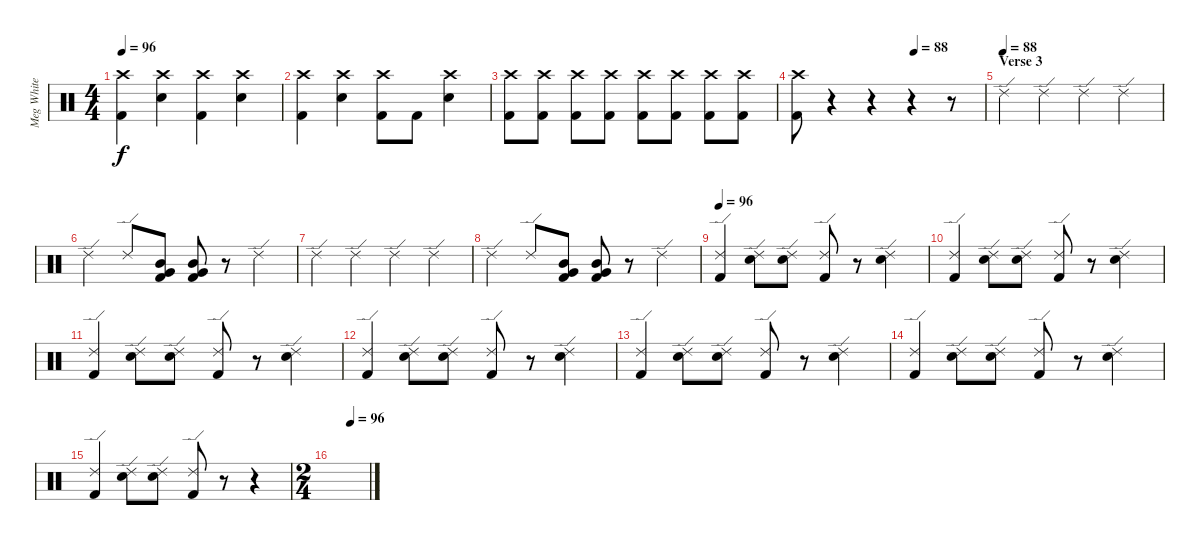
\track ("Meg White - Drums" "Meg White ") {instrument percussion}
\staff {score}
\articulation defaults
\ts (4 4)
\tempo 96
\clef neutral
\ks c
("Crash high (hit)" "Kick (hit) 2").4{dy f} ("Crash high (hit)" "Snare (hit) 2").4 ("Crash high (hit)" "Kick (hit) 2").4 ("Crash high (hit)" "Snare (hit) 2").4 |
("Crash high (hit)" "Kick (hit) 2").4 ("Crash high (hit)" "Snare (hit) 2").4 ("Crash high (hit)" "Kick (hit) 2").8 "Kick (hit) 2".8 ("Crash high (hit)" "Snare (hit) 2").4 |
("Crash high (hit)" "Kick (hit) 2").8 ("Crash high (hit)" "Kick (hit) 2").8 ("Crash high (hit)" "Kick (hit) 2").8 ("Crash high (hit)" "Kick (hit) 2").8 ("Crash high (hit)" "Kick (hit) 2").8 ("Crash high (hit)" "Kick (hit) 2").8 ("Crash high (hit)" "Kick (hit) 2").8 ("Crash high (hit)" "Kick (hit) 2").8 |
\tempo (88 0.625)
("Crash high (hit)" "Kick (hit) 2").8 r.4 r.4 r.4 r.8 |
\section ("" "Verse 3")
\tempo (88)
"Ride (edge) 2".4 "Ride (edge) 2".4 "Ride (edge) 2".4 "Ride (edge) 2".4 |
"Ride (edge) 2".4 "Ride (edge) 2".8 ("Very Low Tom (hit)" "Mid Tom (hit)" "Kick (hit) 2").8 ("Very Low Tom (hit)" "Mid Tom (hit)" "Kick (hit) 2").8 r.8 "Ride (edge) 2".4 |
"Ride (edge) 2".4 "Ride (edge) 2".4 "Ride (edge) 2".4 "Ride (edge) 2".4 |
"Ride (edge) 2".4 "Ride (edge) 2".8 ("Very Low Tom (hit)" "Mid Tom (hit)" "Kick (hit) 2").8 ("Very Low Tom (hit)" "Mid Tom (hit)" "Kick (hit) 2").8 r.8 "Ride (edge) 2".4 |
\tempo 96
("Ride (edge) 2" "Kick (hit) 2").4 ("Ride (edge) 2" "Snare (hit) 2").8 ("Ride (edge) 2" "Snare (hit) 2").8 ("Ride (edge) 2" "Kick (hit) 2").8 r.8 ("Ride (edge) 2" "Snare (hit) 2").4 |
("Ride (edge) 2" "Kick (hit) 2").4 ("Ride (edge) 2" "Snare (hit) 2").8 ("Ride (edge) 2" "Snare (hit) 2").8 ("Ride (edge) 2" "Kick (hit) 2").8 r.8 ("Ride (edge) 2" "Snare (hit) 2").4 |
("Ride (edge) 2" "Kick (hit) 2").4 ("Ride (edge) 2" "Snare (hit) 2").8 ("Ride (edge) 2" "Snare (hit) 2").8 ("Ride (edge) 2" "Kick (hit) 2").8 r.8 ("Ride (edge) 2" "Snare (hit) 2").4 |
("Ride (edge) 2" "Kick (hit) 2").4 ("Ride (edge) 2" "Snare (hit) 2").8 ("Ride (edge) 2" "Snare (hit) 2").8 ("Ride (edge) 2" "Kick (hit) 2").8 r.8 ("Ride (edge) 2" "Snare (hit) 2").4 |
("Ride (edge) 2" "Kick (hit) 2").4 ("Ride (edge) 2" "Snare (hit) 2").8 ("Ride (edge) 2" "Snare (hit) 2").8 ("Ride (edge) 2" "Kick (hit) 2").8 r.8 ("Ride (edge) 2" "Snare (hit) 2").4 |
("Ride (edge) 2" "Kick (hit) 2").4 ("Ride (edge) 2" "Snare (hit) 2").8 ("Ride (edge) 2" "Snare (hit) 2").8 ("Ride (edge) 2" "Kick (hit) 2").8 r.8 ("Ride (edge) 2" "Snare (hit) 2").4 |
("Ride (edge) 2" "Kick (hit) 2").4 ("Ride (edge) 2" "Snare (hit) 2").8 ("Ride (edge) 2" "Snare (hit) 2").8 ("Ride (edge) 2" "Kick (hit) 2").8 r.8 r.4 |
\ts (2 4)
\tempo (96 0.5)
